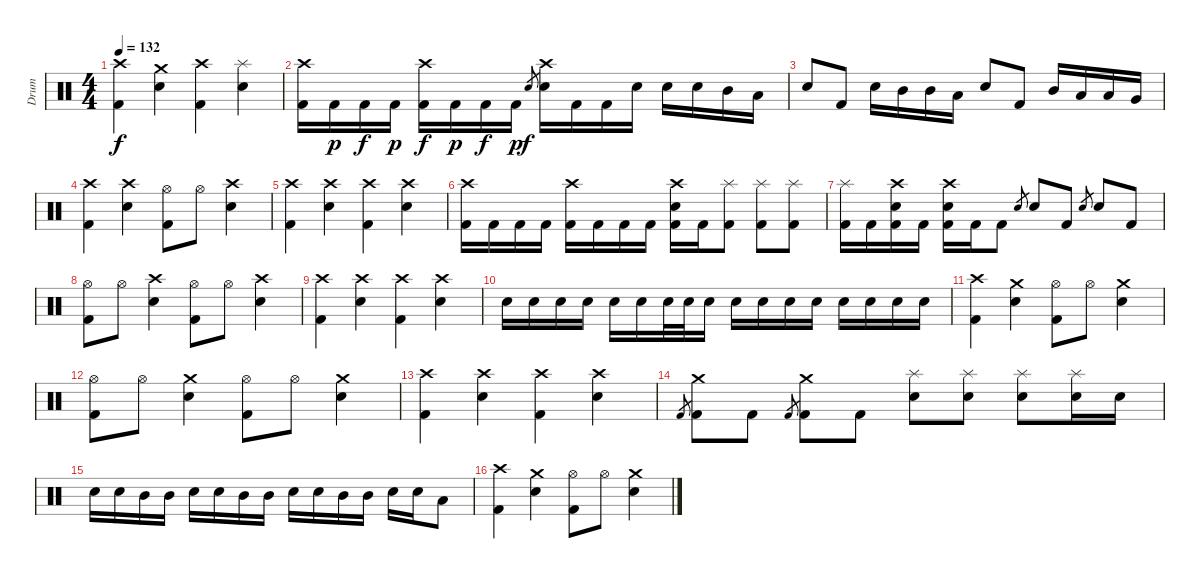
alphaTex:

\track ("Drum" "Drum") {instrument percussion}
\staff {score}
\articulation defaults
\ts (4 4)
\tempo 132
\clef neutral
\ks c
("Crash high (hit)" "Kick (hit) 2").4{dy f} ("Crash medium (hit)" "Snare (hit) 2").4 ("Crash high (hit)" "Kick (hit) 2").4 ("Splash (hit)" "Snare (hit) 2").4 |
("Crash high (hit)" "Kick (hit) 2").16 "Kick (hit) 2".16{dy p} "Kick (hit) 2".16{dy f} "Kick (hit) 2".16{dy p} ("Crash high (hit)" "Kick (hit) 2").16{dy f} "Kick (hit) 2".16{dy p} "Kick (hit) 2".16{dy f} "Kick (hit) 2".16{dy p} "Snare (hit) 2".8{gr dy f} ("Crash high (hit)" "Snare (hit) 2").16 "Kick (hit) 2".16 "Kick (hit) 2".16 "Snare (hit) 2".16 "Snare (hit) 2".16 "Snare (hit) 2".16 "Mid Tom (hit)".16 "Low Tom (hit)".16 |
"Snare (hit) 2".8 "Kick (hit) 2".8 "Snare (hit) 2".16 "Mid Tom (hit)".16 "Mid Tom (hit)".16 "Low Tom (hit)".16 "Snare (hit) 2".8 "Kick (hit) 2".8 "Mid Tom (hit)".16 "Low Tom (hit)".16 "Low Tom (hit)".16 "Very Low Tom (hit)".16 |
("Crash high (hit)" "Kick (hit) 2").4 ("Crash high (hit)" "Snare (hit) 2").4 ("Hi-Hat (open)" "Kick (hit) 2").8 "Hi-Hat (open)".8 ("Crash high (hit)" "Snare (hit) 2").4 |
("Crash high (hit)" "Kick (hit) 2").4 ("Crash high (hit)" "Snare (hit) 2").4 ("Crash high (hit)" "Kick (hit) 2").4 ("Crash high (hit)" "Snare (hit) 2").4 |
("Crash high (hit)" "Kick (hit) 2").16 "Kick (hit) 2".16 "Kick (hit) 2".16 "Kick (hit) 2".16 ("Crash high (hit)" "Kick (hit) 2").16 "Kick (hit) 2".16 "Kick (hit) 2".16 "Kick (hit) 2".16 ("Crash high (hit)" "Snare (hit) 2" "Kick (hit) 2").16 "Kick (hit) 2".16 ("Splash (hit)" "Kick (hit) 2").8 ("Splash (hit)" "Kick (hit) 2").8 ("Splash (hit)" "Kick (hit) 2").8 |
("Splash (hit)" "Kick (hit) 2").16 "Kick (hit) 2".16 ("Crash high (hit)" "Snare (hit) 2" "Kick (hit) 2").16 "Kick (hit) 2".16 ("Crash high (hit)" "Snare (hit) 2" "Kick (hit) 2").16 "Kick (hit) 2".16 "Kick (hit) 2".8 "Snare (hit) 2".8{gr} "Snare (hit) 2".8 "Kick (hit) 2".8 "Snare (hit) 2".8{gr} "Snare (hit) 2".8 "Kick (hit) 2".8 |
("Hi-Hat (open)" "Kick (hit) 2").8 "Hi-Hat (open)".8 ("Crash high (hit)" "Snare (hit) 2").4 ("Hi-Hat (open)" "Kick (hit) 2").8 "Hi-Hat (open)".8 ("Crash high (hit)" "Snare (hit) 2").4 |
("Crash high (hit)" "Kick (hit) 2").4 ("Crash high (hit)" "Snare (hit) 2").4 ("Crash high (hit)" "Kick (hit) 2").4 ("Crash high (hit)" "Snare (hit) 2").4 |
"Snare (hit) 2".16 "Snare (hit) 2".16 "Snare (hit) 2".16 "Snare (hit) 2".16 "Snare (hit) 2".16 "Snare (hit) 2".16 "Snare (hit) 2".32 "Snare (hit) 2".32 "Snare (hit) 2".16 "Snare (hit) 2".16 "Snare (hit) 2".16 "Snare (hit) 2".16 "Snare (hit) 2".16 "Snare (hit) 2".16 "Snare (hit) 2".16 "Snare (hit) 2".16 "Snare (hit) 2".16 |
("Crash high (hit)" "Kick (hit) 2").4 ("Crash medium (hit)" "Snare (hit) 2").4 ("Hi-Hat (open)" "Kick (hit) 2").8 "Hi-Hat (open)".8 ("Crash medium (hit)" "Snare (hit) 2").4 |
("Hi-Hat (open)" "Kick (hit) 2").8 "Hi-Hat (open)".8 ("Crash medium (hit)" "Snare (hit) 2").4 ("Hi-Hat (open)" "Kick (hit) 2").8 "Hi-Hat (open)".8 ("Crash medium (hit)" "Snare (hit) 2").4 |
("Crash high (hit)" "Kick (hit) 2").4 ("Crash high (hit)" "Snare (hit) 2").4 ("Crash high (hit)" "Kick (hit) 2").4 ("Crash high (hit)" "Snare (hit) 2").4 |
"Kick (hit) 2".8{gr} ("Crash medium (hit)" "Kick (hit) 2").8 "Kick (hit) 2".8 "Kick (hit) 2".8{gr} ("Crash medium (hit)" "Kick (hit) 2").8 "Kick (hit) 2".8 ("Splash (hit)" "Snare (hit) 2").8 ("Splash (hit)" "Snare (hit) 2").8 ("Splash (hit)" "Snare (hit) 2").8 ("Splash (hit)" "Snare (hit) 2").16 "Snare (hit) 2".16 |
"Snare (hit) 2".16 "Snare (hit) 2".16 "Mid Tom (hit)".16 "Mid Tom (hit)".16 "Snare (hit) 2".16 "Snare (hit) 2".16 "Mid Tom (hit)".16 "Mid Tom (hit)".16 "Snare (hit) 2".16 "Snare (hit) 2".16 "Mid Tom (hit)".16 "Mid Tom (hit)".16 "Snare (hit) 2".16 "Snare (hit) 2".16 "Low Tom (hit)".8 |
("Crash high (hit)" "Kick (hit) 2").4 ("Crash medium (hit)" "Snare (hit) 2").4 ("Hi-Hat (open)" "Kick (hit) 2").8 "Hi-Hat (open)".8 ("Crash medium (hit)" "Snare (hit) 2").4
